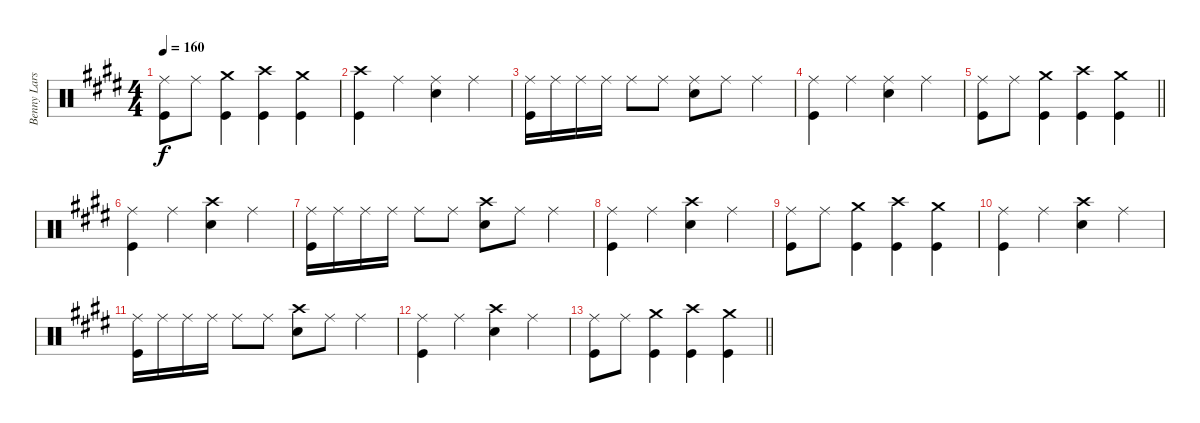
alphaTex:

\track ("Benny Larsson" "Benny Lars") {instrument percussion}
\staff {score}
\articulation defaults
\ts (4 4)
\tempo 160
\clef neutral
\ks e
("Ride (middle)" "Kick (hit)").8{dy f} "Ride (middle)".8 ("Crash medium (hit)" "Kick (hit)").4 ("Crash high (hit)" "Kick (hit)").4 ("Crash medium (hit)" "Kick (hit)").4 |
("Crash high (hit)" "Kick (hit)").4 "Ride (middle)".4 ("Ride (middle)" "Snare (hit) 2").4 "Ride (middle)".4 |
("Ride (middle)" "Kick (hit)").16 "Ride (middle)".16 "Ride (middle)".16 "Ride (middle)".16 "Ride (middle)".8 "Ride (middle)".8 ("Ride (middle)" "Snare (hit) 2").8 "Ride (middle)".8 "Ride (middle)".4 |
("Ride (middle)" "Kick (hit)").4 "Ride (middle)".4 ("Ride (middle)" "Snare (hit) 2").4 "Ride (middle)".4 |
\barLineRight lightlight
("Ride (middle)" "Kick (hit)").8 "Ride (middle)".8 ("Crash medium (hit)" "Kick (hit)").4 ("Crash high (hit)" "Kick (hit)").4 ("Crash medium (hit)" "Kick (hit)").4 |
("Ride (middle)" "Kick (hit)").4 "Ride (middle)".4 ("Crash high (hit)" "Snare (hit) 2").4 "Ride (middle)".4 |
("Ride (middle)" "Kick (hit)").16 "Ride (middle)".16 "Ride (middle)".16 "Ride (middle)".16 "Ride (middle)".8 "Ride (middle)".8 ("Crash high (hit)" "Snare (hit) 2").8 "Ride (middle)".8 "Ride (middle)".4 |
("Ride (middle)" "Kick (hit)").4 "Ride (middle)".4 ("Crash high (hit)" "Snare (hit) 2").4 "Ride (middle)".4 |
("Ride (middle)" "Kick (hit)").8 "Ride (middle)".8 ("Crash medium (hit)" "Kick (hit)").4 ("Crash high (hit)" "Kick (hit)").4 ("Crash medium (hit)" "Kick (hit)").4 |
("Ride (middle)" "Kick (hit)").4 "Ride (middle)".4 ("Crash high (hit)" "Snare (hit) 2").4 "Ride (middle)".4 |
("Ride (middle)" "Kick (hit)").16 "Ride (middle)".16 "Ride (middle)".16 "Ride (middle)".16 "Ride (middle)".8 "Ride (middle)".8 ("Crash high (hit)" "Snare (hit) 2").8 "Ride (middle)".8 "Ride (middle)".4 |
("Ride (middle)" "Kick (hit)").4 "Ride (middle)".4 ("Crash high (hit)" "Snare (hit) 2").4 "Ride (middle)".4 |
\barLineRight lightlight
("Ride (middle)" "Kick (hit)").8 "Ride (middle)".8 ("Crash medium (hit)" "Kick (hit)").4 ("Crash high (hit)" "Kick (hit)").4 ("Crash medium (hit)" "Kick (hit)").4
